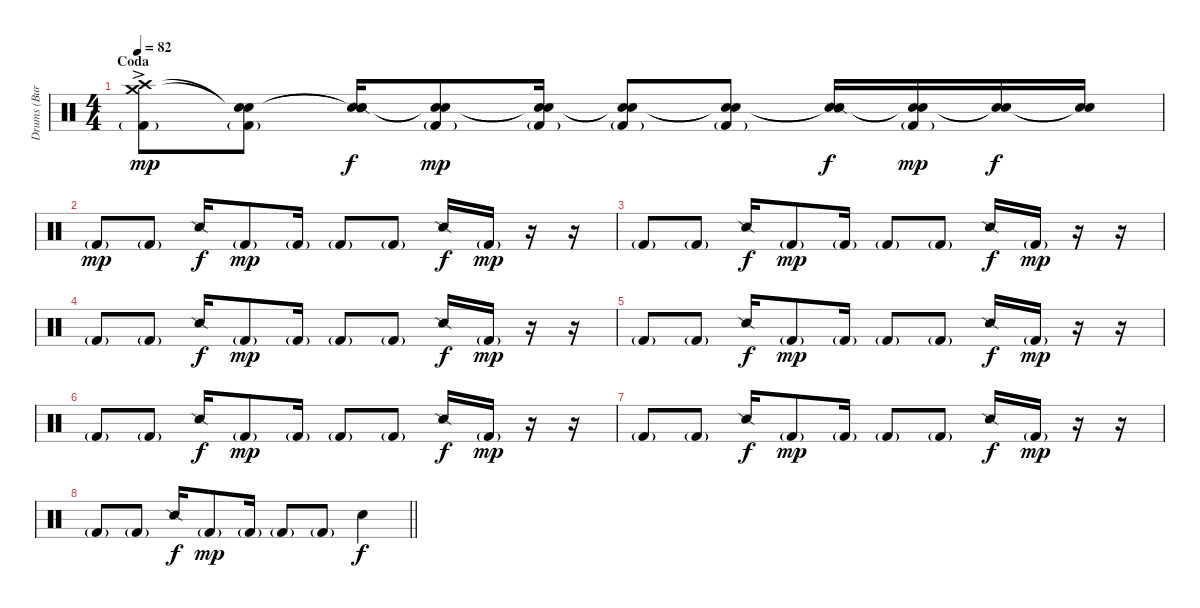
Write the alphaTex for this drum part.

\track ("Drums (Burns)" "Drums (Bur") {instrument percussion}
\staff {score}
\articulation defaults
\ts (4 4)
\section ("" "Coda")
\tempo 82
\clef neutral
\ks c
("Crash high (hit)" "Crash medium (hit)"{ac} "Kick (hit) 2"{g}).8{dy mp} ("Snare (hit)"{t} "Snare (hit)"{t} "Kick (hit) 2"{g}).8 ("Snare (hit)"{t} "Snare (hit)"{t} "Snare (side stick) 2").16{dy f} ("Snare (hit)"{t} "Snare (hit)"{t} "Kick (hit) 2"{g}).8{dy mp} ("Snare (hit)"{t} "Snare (hit)"{t} "Kick (hit) 2"{g}).16 ("Snare (hit)"{t} "Snare (hit)"{t} "Kick (hit) 2"{g}).8 ("Snare (hit)"{t} "Snare (hit)"{t} "Kick (hit) 2"{g}).8 ("Snare (hit)"{t} "Snare (hit)"{t} "Snare (side stick) 2").16{dy f} ("Snare (hit)"{t} "Snare (hit)"{t} "Kick (hit) 2"{g}).16{dy mp} ("Snare (hit)"{t} "Snare (hit)"{t}).16{dy f} ("Snare (hit)"{t} "Snare (hit)"{t}).16 |
"Kick (hit) 2"{g}.8{dy mp} "Kick (hit) 2"{g}.8 "Snare (side stick) 2".16{dy f} "Kick (hit) 2"{g}.8{dy mp} "Kick (hit) 2"{g}.16 "Kick (hit) 2"{g}.8 "Kick (hit) 2"{g}.8 "Snare (side stick) 2".16{dy f} "Kick (hit) 2"{g}.16{dy mp} r.16 r.16 |
"Kick (hit) 2"{g}.8 "Kick (hit) 2"{g}.8 "Snare (side stick) 2".16{dy f} "Kick (hit) 2"{g}.8{dy mp} "Kick (hit) 2"{g}.16 "Kick (hit) 2"{g}.8 "Kick (hit) 2"{g}.8 "Snare (side stick) 2".16{dy f} "Kick (hit) 2"{g}.16{dy mp} r.16 r.16 |
"Kick (hit) 2"{g}.8 "Kick (hit) 2"{g}.8 "Snare (side stick) 2".16{dy f} "Kick (hit) 2"{g}.8{dy mp} "Kick (hit) 2"{g}.16 "Kick (hit) 2"{g}.8 "Kick (hit) 2"{g}.8 "Snare (side stick) 2".16{dy f} "Kick (hit) 2"{g}.16{dy mp} r.16 r.16 |
"Kick (hit) 2"{g}.8 "Kick (hit) 2"{g}.8 "Snare (side stick) 2".16{dy f} "Kick (hit) 2"{g}.8{dy mp} "Kick (hit) 2"{g}.16 "Kick (hit) 2"{g}.8 "Kick (hit) 2"{g}.8 "Snare (side stick) 2".16{dy f} "Kick (hit) 2"{g}.16{dy mp} r.16 r.16 |
"Kick (hit) 2"{g}.8 "Kick (hit) 2"{g}.8 "Snare (side stick) 2".16{dy f} "Kick (hit) 2"{g}.8{dy mp} "Kick (hit) 2"{g}.16 "Kick (hit) 2"{g}.8 "Kick (hit) 2"{g}.8 "Snare (side stick) 2".16{dy f} "Kick (hit) 2"{g}.16{dy mp} r.16 r.16 |
"Kick (hit) 2"{g}.8 "Kick (hit) 2"{g}.8 "Snare (side stick) 2".16{dy f} "Kick (hit) 2"{g}.8{dy mp} "Kick (hit) 2"{g}.16 "Kick (hit) 2"{g}.8 "Kick (hit) 2"{g}.8 "Snare (side stick) 2".16{dy f} "Kick (hit) 2"{g}.16{dy mp} r.16 r.16 |
\barLineRight lightlight "Kick (hit) 2"{g}.8 "Kick (hit) 2"{g}.8 "Snare (side stick) 2".16{dy f} "Kick (hit) 2"{g}.8{dy mp} "Kick (hit) 2"{g}.16 "Kick (hit) 2"{g}.8 "Kick (hit) 2"{g}.8 "Electric Snare (hit)".4{dy f}
